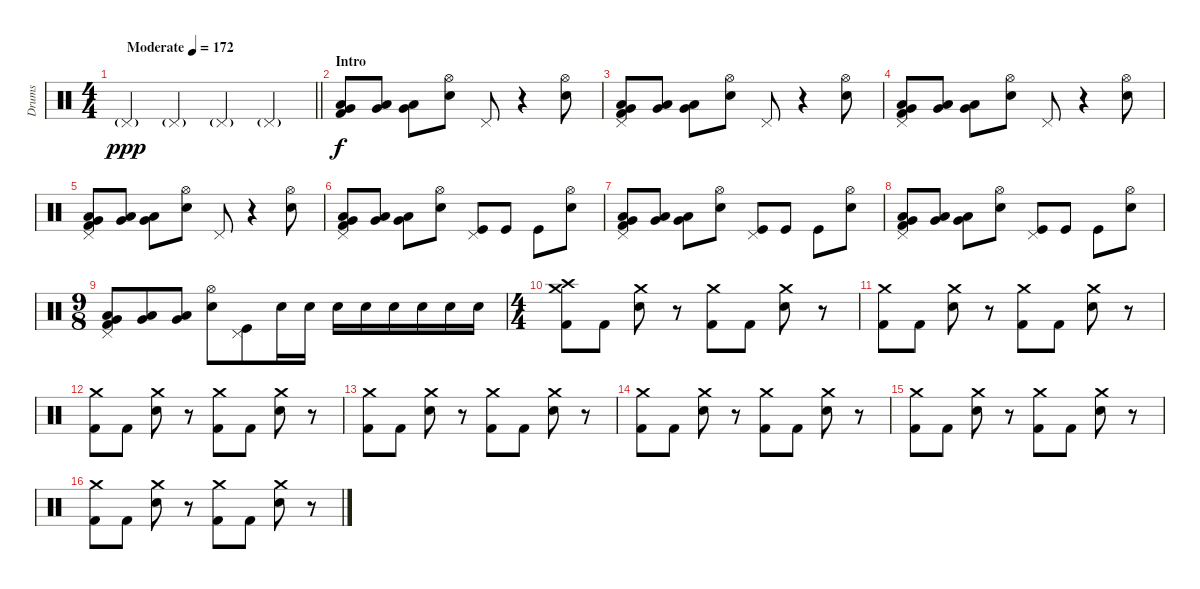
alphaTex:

\track ("Drums" "Drums") {instrument percussion}
\staff {score}
\articulation defaults
\ts (4 4)
\tempo (172 "Moderate")
\clef neutral
\barLineRight lightlight
\ks c "Pedal Hi-Hat (hit)"{g}.4{dy ppp} "Pedal Hi-Hat (hit)"{g}.4 "Pedal Hi-Hat (hit)"{g}.4 "Pedal Hi-Hat (hit)"{g}.4
|
\section ("" "Intro")
("Low Tom (hit)" "Very Low Tom (hit)" "Kick (hit) 2").8{dy f} ("Low Tom (hit)" "Very Low Tom (hit)").8 ("Low Tom (hit)" "Very Low Tom (hit)").8 ("Hi-Hat (open)" "Electric Snare (hit)").8 "Pedal Hi-Hat (hit)".8 r.4 ("Hi-Hat (open)" "Electric Snare (hit)").8 |
("Pedal Hi-Hat (hit)" "Low Tom (hit)" "Very Low Tom (hit)" "Kick (hit) 2").8 ("Low Tom (hit)" "Very Low Tom (hit)").8 ("Low Tom (hit)" "Very Low Tom (hit)").8 ("Hi-Hat (open)" "Electric Snare (hit)").8 "Pedal Hi-Hat (hit)".8 r.4 ("Hi-Hat (open)" "Electric Snare (hit)").8 |
("Pedal Hi-Hat (hit)" "Low Tom (hit)" "Very Low Tom (hit)" "Kick (hit) 2").8 ("Low Tom (hit)" "Very Low Tom (hit)").8 ("Low Tom (hit)" "Very Low Tom (hit)").8 ("Hi-Hat (open)" "Electric Snare (hit)").8 "Pedal Hi-Hat (hit)".8 r.4 ("Hi-Hat (open)" "Electric Snare (hit)").8 |
("Pedal Hi-Hat (hit)" "Low Tom (hit)" "Very Low Tom (hit)" "Kick (hit) 2").8 ("Low Tom (hit)" "Very Low Tom (hit)").8 ("Low Tom (hit)" "Very Low Tom (hit)").8 ("Hi-Hat (open)" "Electric Snare (hit)").8 "Pedal Hi-Hat (hit)".8 r.4 ("Hi-Hat (open)" "Electric Snare (hit)").8 |
("Pedal Hi-Hat (hit)" "Low Tom (hit)" "Very Low Tom (hit)" "Kick (hit) 2").8 ("Low Tom (hit)" "Very Low Tom (hit)").8 ("Low Tom (hit)" "Very Low Tom (hit)").8 ("Hi-Hat (open)" "Electric Snare (hit)").8 ("Pedal Hi-Hat (hit)" "Kick (hit)").8 "Kick (hit)".8 "Kick (hit)".8 ("Hi-Hat (open)" "Electric Snare (hit)").8 |
("Pedal Hi-Hat (hit)" "Low Tom (hit)" "Very Low Tom (hit)" "Kick (hit) 2").8 ("Low Tom (hit)" "Very Low Tom (hit)").8 ("Low Tom (hit)" "Very Low Tom (hit)").8 ("Hi-Hat (open)" "Electric Snare (hit)").8 ("Pedal Hi-Hat (hit)" "Kick (hit)").8 "Kick (hit)".8 "Kick (hit)".8 ("Hi-Hat (open)" "Electric Snare (hit)").8 |
("Pedal Hi-Hat (hit)" "Low Tom (hit)" "Very Low Tom (hit)" "Kick (hit) 2").8 ("Low Tom (hit)" "Very Low Tom (hit)").8 ("Low Tom (hit)" "Very Low Tom (hit)").8 ("Hi-Hat (open)" "Electric Snare (hit)").8 ("Pedal Hi-Hat (hit)" "Kick (hit)").8 "Kick (hit)".8 "Kick (hit)".8 ("Hi-Hat (open)" "Electric Snare (hit)").8 |
\ts (9 8)
("Pedal Hi-Hat (hit)" "Low Tom (hit)" "Very Low Tom (hit)" "Kick (hit) 2").8 ("Low Tom (hit)" "Very Low Tom (hit)").8 ("Low Tom (hit)" "Very Low Tom (hit)").8 ("Hi-Hat (open)" "Electric Snare (hit)").8 ("Pedal Hi-Hat (hit)" "Kick (hit)").8 "Electric Snare (hit)".16 "Electric Snare (hit)".16 "Electric Snare (hit)".16 "Electric Snare (hit)".16 "Electric Snare (hit)".16 "Electric Snare (hit)".16 "Electric Snare (hit)".16 "Electric Snare (hit)".16 |
\ts (4 4)
("Crash high (hit)" "Crash medium (hit)" "Kick (hit) 2").8 "Kick (hit) 2".8 ("Crash medium (hit)" "Electric Snare (hit)").8 r.8 ("Crash medium (hit)" "Kick (hit) 2").8 "Kick (hit) 2".8 ("Crash medium (hit)" "Electric Snare (hit)").8 r.8 |
("Crash medium (hit)" "Kick (hit) 2").8 "Kick (hit) 2".8 ("Crash medium (hit)" "Electric Snare (hit)").8 r.8 ("Crash medium (hit)" "Kick (hit) 2").8 "Kick (hit) 2".8 ("Crash medium (hit)" "Electric Snare (hit)").8 r.8 |
("Crash medium (hit)" "Kick (hit) 2").8 "Kick (hit) 2".8 ("Crash medium (hit)" "Electric Snare (hit)").8 r.8 ("Crash medium (hit)" "Kick (hit) 2").8 "Kick (hit) 2".8 ("Crash medium (hit)" "Electric Snare (hit)").8 r.8 |
("Crash medium (hit)" "Kick (hit) 2").8 "Kick (hit) 2".8 ("Crash medium (hit)" "Electric Snare (hit)").8 r.8 ("Crash medium (hit)" "Kick (hit) 2").8 "Kick (hit) 2".8 ("Crash medium (hit)" "Electric Snare (hit)").8 r.8 |
("Crash medium (hit)" "Kick (hit) 2").8 "Kick (hit) 2".8 ("Crash medium (hit)" "Electric Snare (hit)").8 r.8 ("Crash medium (hit)" "Kick (hit) 2").8 "Kick (hit) 2".8 ("Crash medium (hit)" "Electric Snare (hit)").8 r.8 |
("Crash medium (hit)" "Kick (hit) 2").8 "Kick (hit) 2".8 ("Crash medium (hit)" "Electric Snare (hit)").8 r.8 ("Crash medium (hit)" "Kick (hit) 2").8 "Kick (hit) 2".8 ("Crash medium (hit)" "Electric Snare (hit)").8 r.8 |
("Crash medium (hit)" "Kick (hit) 2").8 "Kick (hit) 2".8 ("Crash medium (hit)" "Electric Snare (hit)").8 r.8 ("Crash medium (hit)" "Kick (hit) 2").8 "Kick (hit) 2".8 ("Crash medium (hit)" "Electric Snare (hit)").8 r.8
